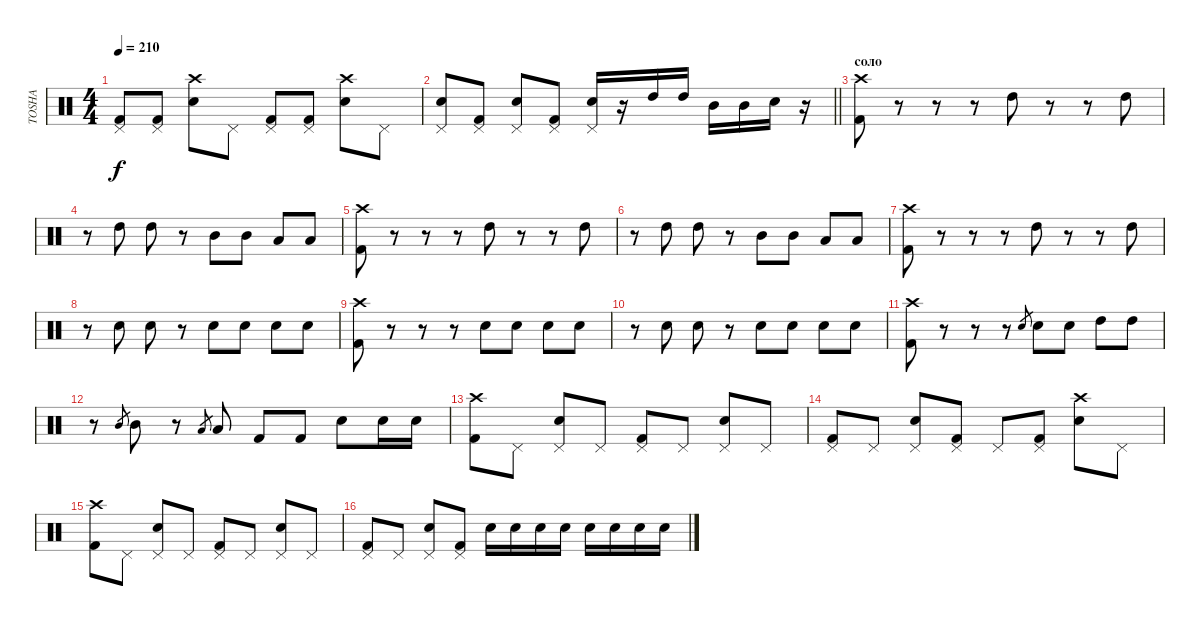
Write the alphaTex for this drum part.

\track ("TOSHA" "TOSHA") {instrument percussion}
\staff {score}
\articulation defaults
\ts (4 4)
\tempo 210
\clef neutral
\ks c
("Kick (hit) 2" "Pedal Hi-Hat (hit)").8{dy f} ("Kick (hit) 2" "Pedal Hi-Hat (hit)").8 ("Electric Snare (hit)" "Crash high (hit)").8 "Pedal Hi-Hat (hit)".8 ("Kick (hit) 2" "Pedal Hi-Hat (hit)").8 ("Kick (hit) 2" "Pedal Hi-Hat (hit)").8 ("Electric Snare (hit)" "Crash high (hit)").8 "Pedal Hi-Hat (hit)".8 |
\barLineRight lightlight
("Electric Snare (hit)" "Pedal Hi-Hat (hit)").8 ("Kick (hit) 2" "Pedal Hi-Hat (hit)").8 ("Electric Snare (hit)" "Pedal Hi-Hat (hit)").8 ("Kick (hit) 2" "Pedal Hi-Hat (hit)").8 ("Electric Snare (hit)" "Pedal Hi-Hat (hit)").16 r.16 "High Tom (hit)".16 "High Tom (hit)".16 "Mid Tom (hit)".16 "Mid Tom (hit)".16 "Electric Snare (hit)".16 r.16 |
\section ("" "соло")
("Crash high (hit)" "Kick (hit) 2").8 r.8 r.8 r.8 "High Tom (hit)".8 r.8 r.8 "High Tom (hit)".8 |
r.8 "High Tom (hit)".8 "High Tom (hit)".8 r.8 "Mid Tom (hit)".8 "Mid Tom (hit)".8 "Low Tom (hit)".8 "Low Tom (hit)".8 |
("Crash high (hit)" "Kick (hit) 2").8 r.8 r.8 r.8 "High Tom (hit)".8 r.8 r.8 "High Tom (hit)".8 |
r.8 "High Tom (hit)".8 "High Tom (hit)".8 r.8 "Mid Tom (hit)".8 "Mid Tom (hit)".8 "Low Tom (hit)".8 "Low Tom (hit)".8 |
("Crash high (hit)" "Kick (hit) 2").8 r.8 r.8 r.8 "High Tom (hit)".8 r.8 r.8 "High Tom (hit)".8 |
r.8 "Electric Snare (hit)".8 "Electric Snare (hit)".8 r.8 "Electric Snare (hit)".8 "Electric Snare (hit)".8 "Electric Snare (hit)".8 "Electric Snare (hit)".8 |
("Crash high (hit)" "Kick (hit) 2").8 r.8 r.8 r.8 "Electric Snare (hit)".8 "Electric Snare (hit)".8 "Electric Snare (hit)".8 "Electric Snare (hit)".8 |
r.8 "Electric Snare (hit)".8 "Electric Snare (hit)".8 r.8 "Electric Snare (hit)".8 "Electric Snare (hit)".8 "Electric Snare (hit)".8 "Electric Snare (hit)".8 |
("Crash high (hit)" "Kick (hit) 2").8 r.8 r.8 r.8 "Electric Snare (hit)".8{gr} "Electric Snare (hit)".8 "Electric Snare (hit)".8 "High Tom (hit)".8 "High Tom (hit)".8 |
r.8 "Mid Tom (hit)".8{gr} "Mid Tom (hit)".8 r.8 "Low Tom (hit)".8{gr} "Low Tom (hit)".8 "Kick (hit) 2".8 "Kick (hit) 2".8 "Electric Snare (hit)".8 "Electric Snare (hit)".16 "Electric Snare (hit)".16 |
("Kick (hit) 2" "Crash high (hit)").8 "Pedal Hi-Hat (hit)".8 ("Electric Snare (hit)" "Pedal Hi-Hat (hit)").8 "Pedal Hi-Hat (hit)".8 ("Kick (hit) 2" "Pedal Hi-Hat (hit)").8 "Pedal Hi-Hat (hit)".8 ("Electric Snare (hit)" "Pedal Hi-Hat (hit)").8 "Pedal Hi-Hat (hit)".8 |
("Kick (hit) 2" "Pedal Hi-Hat (hit)").8 "Pedal Hi-Hat (hit)".8 ("Electric Snare (hit)" "Pedal Hi-Hat (hit)").8 ("Kick (hit) 2" "Pedal Hi-Hat (hit)").8 "Pedal Hi-Hat (hit)".8 ("Kick (hit) 2" "Pedal Hi-Hat (hit)").8 ("Electric Snare (hit)" "Crash high (hit)").8 "Pedal Hi-Hat (hit)".8 |
("Kick (hit) 2" "Crash high (hit)").8 "Pedal Hi-Hat (hit)".8 ("Electric Snare (hit)" "Pedal Hi-Hat (hit)").8 "Pedal Hi-Hat (hit)".8 ("Kick (hit) 2" "Pedal Hi-Hat (hit)").8 "Pedal Hi-Hat (hit)".8 ("Electric Snare (hit)" "Pedal Hi-Hat (hit)").8 "Pedal Hi-Hat (hit)".8 |
("Kick (hit) 2" "Pedal Hi-Hat (hit)").8 "Pedal Hi-Hat (hit)".8 ("Electric Snare (hit)" "Pedal Hi-Hat (hit)").8 ("Kick (hit) 2" "Pedal Hi-Hat (hit)").8 "Electric Snare (hit)".16 "Electric Snare (hit)".16 "Electric Snare (hit)".16 "Electric Snare (hit)".16 "Electric Snare (hit)".16 "Electric Snare (hit)".16 "Electric Snare (hit)".16 "Electric Snare (hit)".16
